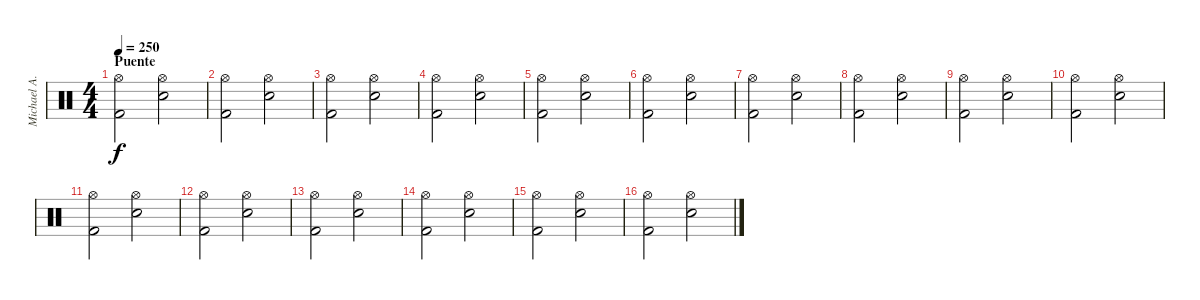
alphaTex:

\track ("Michael A." "Michael A.") {instrument percussion}
\staff {score}
\articulation defaults
\ts (4 4)
\section ("" "Puente")
\tempo 250
\clef neutral
\ks c
("Hi-Hat (open)" "Kick (hit) 2").2{dy f} ("Hi-Hat (open)" "Electric Snare (hit)").2 |
("Hi-Hat (open)" "Kick (hit) 2").2 ("Hi-Hat (open)" "Electric Snare (hit)").2 |
("Hi-Hat (open)" "Kick (hit) 2").2 ("Hi-Hat (open)" "Electric Snare (hit)").2 |
("Hi-Hat (open)" "Kick (hit) 2").2 ("Hi-Hat (open)" "Electric Snare (hit)").2 |
("Hi-Hat (open)" "Kick (hit) 2").2 ("Hi-Hat (open)" "Electric Snare (hit)").2 |
("Hi-Hat (open)" "Kick (hit) 2").2 ("Hi-Hat (open)" "Electric Snare (hit)").2 |
("Hi-Hat (open)" "Kick (hit) 2").2 ("Hi-Hat (open)" "Electric Snare (hit)").2 |
("Hi-Hat (open)" "Kick (hit) 2").2 ("Hi-Hat (open)" "Electric Snare (hit)").2 |
("Hi-Hat (open)" "Kick (hit) 2").2 ("Hi-Hat (open)" "Electric Snare (hit)").2 |
("Hi-Hat (open)" "Kick (hit) 2").2 ("Hi-Hat (open)" "Electric Snare (hit)").2 |
("Hi-Hat (open)" "Kick (hit) 2").2 ("Hi-Hat (open)" "Electric Snare (hit)").2 |
("Hi-Hat (open)" "Kick (hit) 2").2 ("Hi-Hat (open)" "Electric Snare (hit)").2 |
("Hi-Hat (open)" "Kick (hit) 2").2 ("Hi-Hat (open)" "Electric Snare (hit)").2 |
("Hi-Hat (open)" "Kick (hit) 2").2 ("Hi-Hat (open)" "Electric Snare (hit)").2 |
("Hi-Hat (open)" "Kick (hit) 2").2 ("Hi-Hat (open)" "Electric Snare (hit)").2 |
("Hi-Hat (open)" "Kick (hit) 2").2 ("Hi-Hat (open)" "Electric Snare (hit)").2
